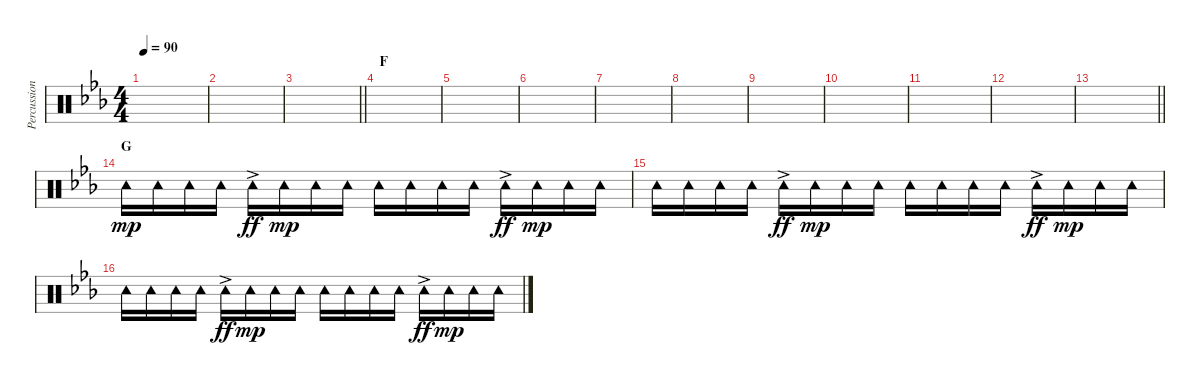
\track ("Percussion" "Percussion") {instrument percussion}
\staff {score}
\articulation defaults
\ts (4 4)
\tempo 90
\clef neutral
\ks eb
|
|
\barLineRight lightlight
|
\section ("" "F")
|
|
|
|
|
|
|
|
|
\barLineRight lightlight
|
\section ("" "G")
"Tambourine (hit)".16{dy mp} "Tambourine (hit)".16 "Tambourine (hit)".16 "Tambourine (hit)".16 "Tambourine (hit)"{ac}.16{dy ff} "Tambourine (hit)".16{dy mp} "Tambourine (hit)".16 "Tambourine (hit)".16 "Tambourine (hit)".16 "Tambourine (hit)".16 "Tambourine (hit)".16 "Tambourine (hit)".16 "Tambourine (hit)"{ac}.16{dy ff} "Tambourine (hit)".16{dy mp} "Tambourine (hit)".16 "Tambourine (hit)".16 |
"Tambourine (hit)".16 "Tambourine (hit)".16 "Tambourine (hit)".16 "Tambourine (hit)".16 "Tambourine (hit)"{ac}.16{dy ff} "Tambourine (hit)".16{dy mp} "Tambourine (hit)".16 "Tambourine (hit)".16 "Tambourine (hit)".16 "Tambourine (hit)".16 "Tambourine (hit)".16 "Tambourine (hit)".16 "Tambourine (hit)"{ac}.16{dy ff} "Tambourine (hit)".16{dy mp} "Tambourine (hit)".16 "Tambourine (hit)".16 |
"Tambourine (hit)".16 "Tambourine (hit)".16 "Tambourine (hit)".16 "Tambourine (hit)".16 "Tambourine (hit)"{ac}.16{dy ff} "Tambourine (hit)".16{dy mp} "Tambourine (hit)".16 "Tambourine (hit)".16 "Tambourine (hit)".16 "Tambourine (hit)".16 "Tambourine (hit)".16 "Tambourine (hit)".16 "Tambourine (hit)"{ac}.16{dy ff} "Tambourine (hit)".16{dy mp} "Tambourine (hit)".16 "Tambourine (hit)".16
